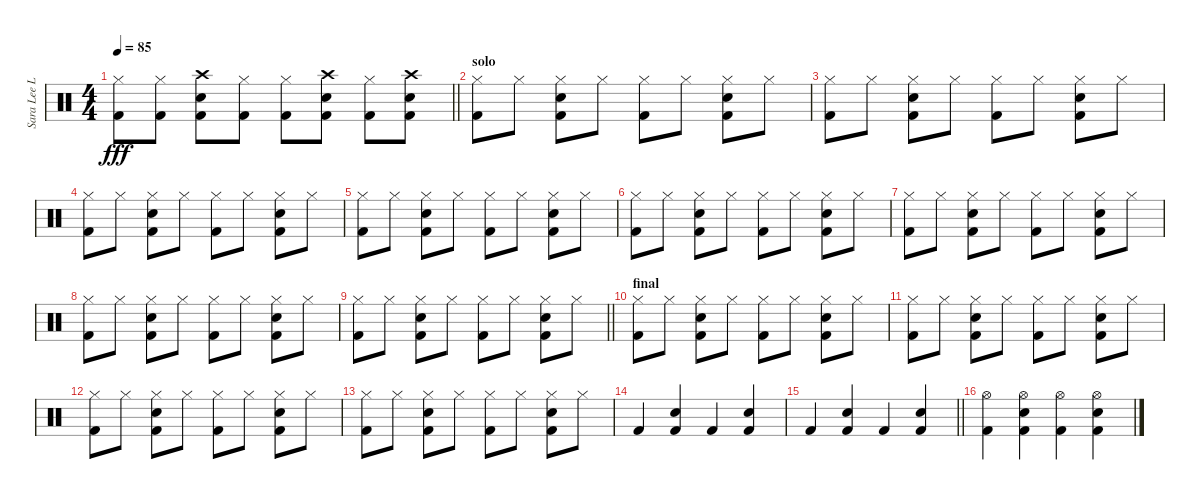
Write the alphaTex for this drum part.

\track ("Sara Lee Lucas" "Sara Lee L") {instrument percussion}
\staff {score}
\articulation defaults
\ts (4 4)
\tempo 85
\clef neutral
\barLineRight lightlight
\ks c
("Hi-Hat (closed)" "Kick (hit) 2").8{dy fff} ("Hi-Hat (closed)" "Kick (hit) 2").8 ("Crash high (hit)" "Snare (hit) 2" "Kick (hit) 2").8 ("Hi-Hat (closed)" "Kick (hit) 2").8 ("Hi-Hat (closed)" "Kick (hit) 2").8 ("Crash high (hit)" "Snare (hit) 2" "Kick (hit) 2").8 ("Hi-Hat (closed)" "Kick (hit) 2").8 ("Crash high (hit)" "Snare (hit) 2" "Kick (hit) 2").8 |
\section ("" "solo")
("Hi-Hat (closed)" "Kick (hit) 2").8 "Hi-Hat (closed)".8 ("Hi-Hat (closed)" "Snare (hit) 2" "Kick (hit) 2").8 "Hi-Hat (closed)".8 ("Hi-Hat (closed)" "Kick (hit) 2").8 "Hi-Hat (closed)".8 ("Hi-Hat (closed)" "Snare (hit) 2" "Kick (hit) 2").8 "Hi-Hat (closed)".8 |
("Hi-Hat (closed)" "Kick (hit) 2").8 "Hi-Hat (closed)".8 ("Hi-Hat (closed)" "Snare (hit) 2" "Kick (hit) 2").8 "Hi-Hat (closed)".8 ("Hi-Hat (closed)" "Kick (hit) 2").8 "Hi-Hat (closed)".8 ("Hi-Hat (closed)" "Snare (hit) 2" "Kick (hit) 2").8 "Hi-Hat (closed)".8 |
("Hi-Hat (closed)" "Kick (hit) 2").8 "Hi-Hat (closed)".8 ("Hi-Hat (closed)" "Snare (hit) 2" "Kick (hit) 2").8 "Hi-Hat (closed)".8 ("Hi-Hat (closed)" "Kick (hit) 2").8 "Hi-Hat (closed)".8 ("Hi-Hat (closed)" "Snare (hit) 2" "Kick (hit) 2").8 "Hi-Hat (closed)".8 |
("Hi-Hat (closed)" "Kick (hit) 2").8 "Hi-Hat (closed)".8 ("Hi-Hat (closed)" "Snare (hit) 2" "Kick (hit) 2").8 "Hi-Hat (closed)".8 ("Hi-Hat (closed)" "Kick (hit) 2").8 "Hi-Hat (closed)".8 ("Hi-Hat (closed)" "Snare (hit) 2" "Kick (hit) 2").8 "Hi-Hat (closed)".8 |
("Hi-Hat (closed)" "Kick (hit) 2").8 "Hi-Hat (closed)".8 ("Hi-Hat (closed)" "Snare (hit) 2" "Kick (hit) 2").8 "Hi-Hat (closed)".8 ("Hi-Hat (closed)" "Kick (hit) 2").8 "Hi-Hat (closed)".8 ("Hi-Hat (closed)" "Snare (hit) 2" "Kick (hit) 2").8 "Hi-Hat (closed)".8 |
("Hi-Hat (closed)" "Kick (hit) 2").8 "Hi-Hat (closed)".8 ("Hi-Hat (closed)" "Snare (hit) 2" "Kick (hit) 2").8 "Hi-Hat (closed)".8 ("Hi-Hat (closed)" "Kick (hit) 2").8 "Hi-Hat (closed)".8 ("Hi-Hat (closed)" "Snare (hit) 2" "Kick (hit) 2").8 "Hi-Hat (closed)".8 |
("Hi-Hat (closed)" "Kick (hit) 2").8 "Hi-Hat (closed)".8 ("Hi-Hat (closed)" "Snare (hit) 2" "Kick (hit) 2").8 "Hi-Hat (closed)".8 ("Hi-Hat (closed)" "Kick (hit) 2").8 "Hi-Hat (closed)".8 ("Hi-Hat (closed)" "Snare (hit) 2" "Kick (hit) 2").8 "Hi-Hat (closed)".8 |
\barLineRight lightlight
("Hi-Hat (closed)" "Kick (hit) 2").8 "Hi-Hat (closed)".8 ("Hi-Hat (closed)" "Snare (hit) 2" "Kick (hit) 2").8 "Hi-Hat (closed)".8 ("Hi-Hat (closed)" "Kick (hit) 2").8 "Hi-Hat (closed)".8 ("Hi-Hat (closed)" "Snare (hit) 2" "Kick (hit) 2").8 "Hi-Hat (closed)".8 |
\section ("" "final")
("Hi-Hat (closed)" "Kick (hit) 2").8 "Hi-Hat (closed)".8 ("Hi-Hat (closed)" "Snare (hit) 2" "Kick (hit) 2").8 "Hi-Hat (closed)".8 ("Hi-Hat (closed)" "Kick (hit) 2").8 "Hi-Hat (closed)".8 ("Hi-Hat (closed)" "Snare (hit) 2" "Kick (hit) 2").8 "Hi-Hat (closed)".8 |
("Hi-Hat (closed)" "Kick (hit) 2").8 "Hi-Hat (closed)".8 ("Hi-Hat (closed)" "Snare (hit) 2" "Kick (hit) 2").8 "Hi-Hat (closed)".8 ("Hi-Hat (closed)" "Kick (hit) 2").8 "Hi-Hat (closed)".8 ("Hi-Hat (closed)" "Snare (hit) 2" "Kick (hit) 2").8 "Hi-Hat (closed)".8 |
("Hi-Hat (closed)" "Kick (hit) 2").8 "Hi-Hat (closed)".8 ("Hi-Hat (closed)" "Snare (hit) 2" "Kick (hit) 2").8 "Hi-Hat (closed)".8 ("Hi-Hat (closed)" "Kick (hit) 2").8 "Hi-Hat (closed)".8 ("Hi-Hat (closed)" "Snare (hit) 2" "Kick (hit) 2").8 "Hi-Hat (closed)".8 |
("Hi-Hat (closed)" "Kick (hit) 2").8 "Hi-Hat (closed)".8 ("Hi-Hat (closed)" "Snare (hit) 2" "Kick (hit) 2").8 "Hi-Hat (closed)".8 ("Hi-Hat (closed)" "Kick (hit) 2").8 "Hi-Hat (closed)".8 ("Hi-Hat (closed)" "Snare (hit) 2" "Kick (hit) 2").8 "Hi-Hat (closed)".8 |
"Kick (hit) 2".4 ("Kick (hit) 2" "Snare (hit) 2").4 "Kick (hit) 2".4 ("Kick (hit) 2" "Snare (hit) 2").4 |
\barLineRight lightlight "Kick (hit) 2".4
("Kick (hit) 2" "Snare (hit) 2").4 "Kick (hit) 2".4 ("Kick (hit) 2" "Snare (hit) 2").4 |
("Hi-Hat (open)" "Kick (hit) 2").4 ("Hi-Hat (open)" "Kick (hit) 2" "Snare (hit) 2").4 ("Hi-Hat (open)" "Kick (hit) 2").4 ("Hi-Hat (open)" "Kick (hit) 2" "Snare (hit) 2").4
